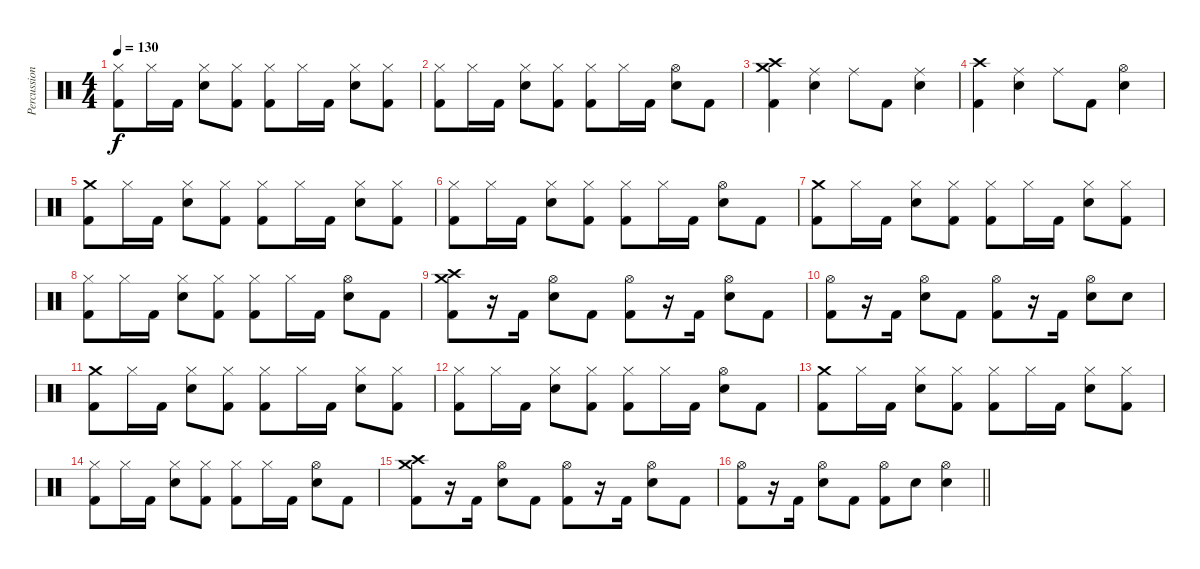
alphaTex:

\track ("Percussion" "Percussion") {instrument percussion}
\staff {score}
\articulation defaults
\ts (4 4)
\tempo 130
\clef neutral
\ks c
("Hi-Hat (closed)" "Kick (hit) 2").8{dy f} "Hi-Hat (closed)".16 "Kick (hit) 2".16 ("Hi-Hat (closed)" "Snare (hit) 2").8 ("Hi-Hat (closed)" "Kick (hit) 2").8 ("Hi-Hat (closed)" "Kick (hit) 2").8 "Hi-Hat (closed)".16 "Kick (hit) 2".16 ("Hi-Hat (closed)" "Snare (hit) 2").8 ("Hi-Hat (closed)" "Kick (hit) 2").8 |
("Hi-Hat (closed)" "Kick (hit) 2").8 "Hi-Hat (closed)".16 "Kick (hit) 2".16 ("Hi-Hat (closed)" "Snare (hit) 2").8 ("Hi-Hat (closed)" "Kick (hit) 2").8 ("Hi-Hat (closed)" "Kick (hit) 2").8 "Hi-Hat (closed)".16 "Kick (hit) 2".16 ("Hi-Hat (open)" "Snare (hit) 2").8 "Kick (hit) 2".8 |
("Crash high (hit)" "Crash medium (hit)" "Kick (hit) 2").4 ("Ride (middle)" "Snare (hit) 2").4 "Ride (middle)".8 "Kick (hit) 2".8 ("Ride (middle)" "Snare (hit) 2").4 |
("Crash high (hit)" "Kick (hit) 2").4 ("Ride (middle)" "Snare (hit) 2").4 "Ride (middle)".8 "Kick (hit) 2".8 ("Hi-Hat (open)" "Snare (hit) 2").4 |
("Crash medium (hit)" "Kick (hit) 2").8 "Hi-Hat (closed)".16 "Kick (hit) 2".16 ("Hi-Hat (closed)" "Snare (hit) 2").8 ("Hi-Hat (closed)" "Kick (hit) 2").8 ("Hi-Hat (closed)" "Kick (hit) 2").8 "Hi-Hat (closed)".16 "Kick (hit) 2".16 ("Hi-Hat (closed)" "Snare (hit) 2").8 ("Hi-Hat (closed)" "Kick (hit) 2").8 |
("Hi-Hat (closed)" "Kick (hit) 2").8 "Hi-Hat (closed)".16 "Kick (hit) 2".16 ("Hi-Hat (closed)" "Snare (hit) 2").8 ("Hi-Hat (closed)" "Kick (hit) 2").8 ("Hi-Hat (closed)" "Kick (hit) 2").8 "Hi-Hat (closed)".16 "Kick (hit) 2".16 ("Hi-Hat (open)" "Snare (hit) 2").8 "Kick (hit) 2".8 |
("Crash medium (hit)" "Kick (hit) 2").8 "Hi-Hat (closed)".16 "Kick (hit) 2".16 ("Hi-Hat (closed)" "Snare (hit) 2").8 ("Hi-Hat (closed)" "Kick (hit) 2").8 ("Hi-Hat (closed)" "Kick (hit) 2").8 "Hi-Hat (closed)".16 "Kick (hit) 2".16 ("Hi-Hat (closed)" "Snare (hit) 2").8 ("Hi-Hat (closed)" "Kick (hit) 2").8 |
("Hi-Hat (closed)" "Kick (hit) 2").8 "Hi-Hat (closed)".16 "Kick (hit) 2".16 ("Hi-Hat (closed)" "Snare (hit) 2").8 ("Hi-Hat (closed)" "Kick (hit) 2").8 ("Hi-Hat (closed)" "Kick (hit) 2").8 "Hi-Hat (closed)".16 "Kick (hit) 2".16 ("Hi-Hat (open)" "Snare (hit) 2").8 "Kick (hit) 2".8 |
("Crash medium (hit)" "Crash high (hit)" "Kick (hit) 2").8 r.16 "Kick (hit) 2".16 ("Hi-Hat (open)" "Snare (hit) 2").8 "Kick (hit) 2".8 ("Hi-Hat (open)" "Kick (hit) 2").8 r.16 "Kick (hit) 2".16 ("Hi-Hat (open)" "Snare (hit) 2").8 "Kick (hit) 2".8 |
("Hi-Hat (open)" "Kick (hit) 2").8 r.16 "Kick (hit) 2".16 ("Hi-Hat (open)" "Snare (hit) 2").8 "Kick (hit) 2".8 ("Hi-Hat (open)" "Kick (hit) 2").8 r.16 "Kick (hit) 2".16 ("Hi-Hat (open)" "Snare (hit) 2").8 "Snare (hit) 2".8 |
("Crash medium (hit)" "Kick (hit) 2").8 "Hi-Hat (closed)".16 "Kick (hit) 2".16 ("Hi-Hat (closed)" "Snare (hit) 2").8 ("Hi-Hat (closed)" "Kick (hit) 2").8 ("Hi-Hat (closed)" "Kick (hit) 2").8 "Hi-Hat (closed)".16 "Kick (hit) 2".16 ("Hi-Hat (closed)" "Snare (hit) 2").8 ("Hi-Hat (closed)" "Kick (hit) 2").8 |
("Hi-Hat (closed)" "Kick (hit) 2").8 "Hi-Hat (closed)".16 "Kick (hit) 2".16 ("Hi-Hat (closed)" "Snare (hit) 2").8 ("Hi-Hat (closed)" "Kick (hit) 2").8 ("Hi-Hat (closed)" "Kick (hit) 2").8 "Hi-Hat (closed)".16 "Kick (hit) 2".16 ("Hi-Hat (open)" "Snare (hit) 2").8 "Kick (hit) 2".8 |
("Crash medium (hit)" "Kick (hit) 2").8 "Hi-Hat (closed)".16 "Kick (hit) 2".16 ("Hi-Hat (closed)" "Snare (hit) 2").8 ("Hi-Hat (closed)" "Kick (hit) 2").8 ("Hi-Hat (closed)" "Kick (hit) 2").8 "Hi-Hat (closed)".16 "Kick (hit) 2".16 ("Hi-Hat (closed)" "Snare (hit) 2").8 ("Hi-Hat (closed)" "Kick (hit) 2").8 |
("Hi-Hat (closed)" "Kick (hit) 2").8 "Hi-Hat (closed)".16 "Kick (hit) 2".16 ("Hi-Hat (closed)" "Snare (hit) 2").8 ("Hi-Hat (closed)" "Kick (hit) 2").8 ("Hi-Hat (closed)" "Kick (hit) 2").8 "Hi-Hat (closed)".16 "Kick (hit) 2".16 ("Hi-Hat (open)" "Snare (hit) 2").8 "Kick (hit) 2".8 |
("Crash medium (hit)" "Crash high (hit)" "Kick (hit) 2").8 r.16 "Kick (hit) 2".16 ("Hi-Hat (open)" "Snare (hit) 2").8 "Kick (hit) 2".8 ("Hi-Hat (open)" "Kick (hit) 2").8 r.16 "Kick (hit) 2".16 ("Hi-Hat (open)" "Snare (hit) 2").8 "Kick (hit) 2".8 |
\barLineRight lightlight
("Hi-Hat (open)" "Kick (hit) 2").8 r.16 "Kick (hit) 2".16 ("Hi-Hat (open)" "Snare (hit) 2").8 "Kick (hit) 2".8 ("Hi-Hat (open)" "Kick (hit) 2").8 "Snare (hit) 2".8 ("Hi-Hat (open)" "Snare (hit) 2").4
